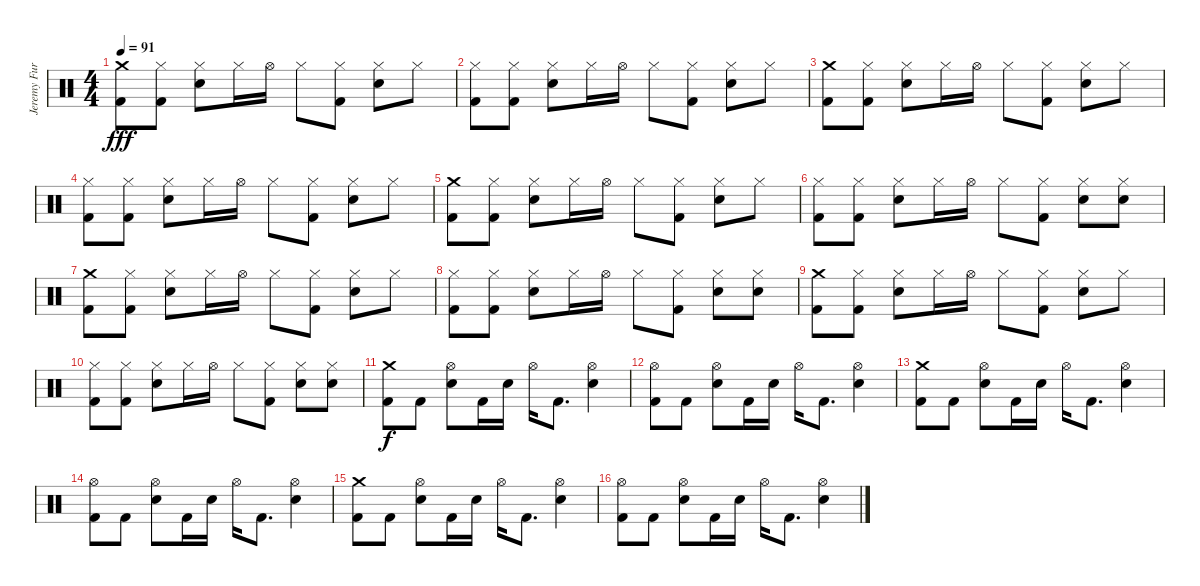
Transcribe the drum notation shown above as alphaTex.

\track ("Jeremy Furstenfeld - drums" "Jeremy Fur") {instrument percussion}
\staff {score}
\articulation defaults
\ts (4 4)
\tempo 91
\clef neutral
\ks c
("Crash medium (hit)" "Kick (hit) 2").8{dy fff} ("Hi-Hat (closed)" "Kick (hit) 2").8 ("Hi-Hat (closed)" "Electric Snare (hit)").8 "Hi-Hat (closed)".16 "Hi-Hat (open)".16 "Hi-Hat (closed)".8 ("Hi-Hat (closed)" "Kick (hit) 2").8 ("Hi-Hat (closed)" "Electric Snare (hit)").8 "Hi-Hat (closed)".8 |
("Hi-Hat (closed)" "Kick (hit) 2").8 ("Hi-Hat (closed)" "Kick (hit) 2").8 ("Hi-Hat (closed)" "Electric Snare (hit)").8 "Hi-Hat (closed)".16 "Hi-Hat (open)".16 "Hi-Hat (closed)".8 ("Hi-Hat (closed)" "Kick (hit) 2").8 ("Hi-Hat (closed)" "Electric Snare (hit)").8 "Hi-Hat (closed)".8 |
("Crash medium (hit)" "Kick (hit) 2").8 ("Hi-Hat (closed)" "Kick (hit) 2").8 ("Hi-Hat (closed)" "Electric Snare (hit)").8 "Hi-Hat (closed)".16 "Hi-Hat (open)".16 "Hi-Hat (closed)".8 ("Hi-Hat (closed)" "Kick (hit) 2").8 ("Hi-Hat (closed)" "Electric Snare (hit)").8 "Hi-Hat (closed)".8 |
("Hi-Hat (closed)" "Kick (hit) 2").8 ("Hi-Hat (closed)" "Kick (hit) 2").8 ("Hi-Hat (closed)" "Electric Snare (hit)").8 "Hi-Hat (closed)".16 "Hi-Hat (open)".16 "Hi-Hat (closed)".8 ("Hi-Hat (closed)" "Kick (hit) 2").8 ("Hi-Hat (closed)" "Electric Snare (hit)").8 "Hi-Hat (closed)".8 |
("Crash medium (hit)" "Kick (hit) 2").8 ("Hi-Hat (closed)" "Kick (hit) 2").8 ("Hi-Hat (closed)" "Electric Snare (hit)").8 "Hi-Hat (closed)".16 "Hi-Hat (open)".16 "Hi-Hat (closed)".8 ("Hi-Hat (closed)" "Kick (hit) 2").8 ("Hi-Hat (closed)" "Electric Snare (hit)").8 "Hi-Hat (closed)".8 |
("Hi-Hat (closed)" "Kick (hit) 2").8 ("Hi-Hat (closed)" "Kick (hit) 2").8 ("Hi-Hat (closed)" "Electric Snare (hit)").8 "Hi-Hat (closed)".16 "Hi-Hat (open)".16 "Hi-Hat (closed)".8 ("Hi-Hat (closed)" "Kick (hit) 2").8 ("Hi-Hat (closed)" "Electric Snare (hit)").8 ("Hi-Hat (closed)" "Electric Snare (hit)").8 |
("Crash medium (hit)" "Kick (hit) 2").8 ("Hi-Hat (closed)" "Kick (hit) 2").8 ("Hi-Hat (closed)" "Electric Snare (hit)").8 "Hi-Hat (closed)".16 "Hi-Hat (open)".16 "Hi-Hat (closed)".8 ("Hi-Hat (closed)" "Kick (hit) 2").8 ("Hi-Hat (closed)" "Electric Snare (hit)").8 "Hi-Hat (closed)".8 |
("Hi-Hat (closed)" "Kick (hit) 2").8 ("Hi-Hat (closed)" "Kick (hit) 2").8 ("Hi-Hat (closed)" "Electric Snare (hit)").8 "Hi-Hat (closed)".16 "Hi-Hat (open)".16 "Hi-Hat (closed)".8 ("Hi-Hat (closed)" "Kick (hit) 2").8 ("Hi-Hat (closed)" "Electric Snare (hit)").8 ("Hi-Hat (closed)" "Electric Snare (hit)").8 |
("Crash medium (hit)" "Kick (hit) 2").8 ("Hi-Hat (closed)" "Kick (hit) 2").8 ("Hi-Hat (closed)" "Electric Snare (hit)").8 "Hi-Hat (closed)".16 "Hi-Hat (open)".16 "Hi-Hat (closed)".8 ("Hi-Hat (closed)" "Kick (hit) 2").8 ("Hi-Hat (closed)" "Electric Snare (hit)").8 "Hi-Hat (closed)".8 |
("Hi-Hat (closed)" "Kick (hit) 2").8 ("Hi-Hat (closed)" "Kick (hit) 2").8 ("Hi-Hat (closed)" "Electric Snare (hit)").8 "Hi-Hat (closed)".16 "Hi-Hat (open)".16 "Hi-Hat (closed)".8 ("Hi-Hat (closed)" "Kick (hit) 2").8 ("Hi-Hat (closed)" "Electric Snare (hit)").8 ("Hi-Hat (closed)" "Electric Snare (hit)").8 |
("Crash medium (hit)" "Kick (hit) 2").8{dy f} "Kick (hit) 2".8 ("Hi-Hat (open)" "Electric Snare (hit)").8 "Kick (hit) 2".16 "Electric Snare (hit)".16 "Hi-Hat (open)".16 "Kick (hit) 2".8{d} ("Hi-Hat (open)" "Electric Snare (hit)").4 |
("Hi-Hat (open)" "Kick (hit) 2").8 "Kick (hit) 2".8 ("Hi-Hat (open)" "Electric Snare (hit)").8 "Kick (hit) 2".16 "Electric Snare (hit)".16 "Hi-Hat (open)".16 "Kick (hit) 2".8{d} ("Hi-Hat (open)" "Electric Snare (hit)").4 |
("Crash medium (hit)" "Kick (hit) 2").8 "Kick (hit) 2".8 ("Hi-Hat (open)" "Electric Snare (hit)").8 "Kick (hit) 2".16 "Electric Snare (hit)".16 "Hi-Hat (open)".16 "Kick (hit) 2".8{d} ("Hi-Hat (open)" "Electric Snare (hit)").4 |
("Hi-Hat (open)" "Kick (hit) 2").8 "Kick (hit) 2".8 ("Hi-Hat (open)" "Electric Snare (hit)").8 "Kick (hit) 2".16 "Electric Snare (hit)".16 "Hi-Hat (open)".16 "Kick (hit) 2".8{d} ("Hi-Hat (open)" "Electric Snare (hit)").4 |
("Crash medium (hit)" "Kick (hit) 2").8 "Kick (hit) 2".8 ("Hi-Hat (open)" "Electric Snare (hit)").8 "Kick (hit) 2".16 "Electric Snare (hit)".16 "Hi-Hat (open)".16 "Kick (hit) 2".8{d} ("Hi-Hat (open)" "Electric Snare (hit)").4 |
("Hi-Hat (open)" "Kick (hit) 2").8 "Kick (hit) 2".8 ("Hi-Hat (open)" "Electric Snare (hit)").8 "Kick (hit) 2".16 "Electric Snare (hit)".16 "Hi-Hat (open)".16 "Kick (hit) 2".8{d} ("Hi-Hat (open)" "Electric Snare (hit)").4
